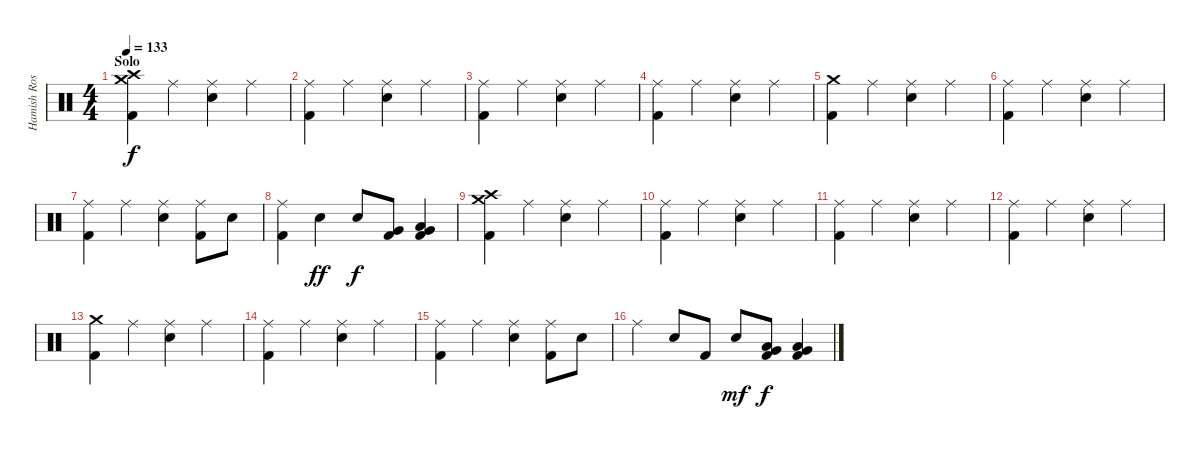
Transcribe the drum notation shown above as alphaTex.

\track ("Hamish Rosser" "Hamish Ros") {instrument percussion}
\staff {score}
\articulation defaults
\ts (4 4)
\section ("" "Solo")
\tempo 133
\clef neutral
\ks c
("Crash medium (hit)" "Crash high (hit)" "Kick (hit) 2").4{dy f} "Ride (middle)".4 ("Ride (middle)" "Electric Snare (hit)").4 "Ride (middle)".4 |
("Ride (middle)" "Kick (hit) 2").4 "Ride (middle)".4 ("Ride (middle)" "Electric Snare (hit)").4 "Ride (middle)".4 |
("Ride (middle)" "Kick (hit) 2").4 "Ride (middle)".4 ("Ride (middle)" "Electric Snare (hit)").4 "Ride (middle)".4 |
("Ride (middle)" "Kick (hit) 2").4 "Ride (middle)".4 ("Ride (middle)" "Electric Snare (hit)").4 "Ride (middle)".4 |
("Crash medium (hit)" "Kick (hit) 2").4 "Ride (middle)".4 ("Ride (middle)" "Electric Snare (hit)").4 "Ride (middle)".4 |
("Ride (middle)" "Kick (hit) 2").4 "Ride (middle)".4 ("Ride (middle)" "Electric Snare (hit)").4 "Ride (middle)".4 |
("Ride (middle)" "Kick (hit) 2").4 "Ride (middle)".4 ("Ride (middle)" "Electric Snare (hit)").4 ("Ride (middle)" "Kick (hit) 2").8 "Electric Snare (hit)".8 |
("Ride (middle)" "Kick (hit) 2").4 "Electric Snare (hit)".4{dy ff} "Electric Snare (hit)".8{dy f} ("Very Low Tom (hit)" "Kick (hit) 2").8 ("Low Tom (hit)" "Very Low Tom (hit)" "Kick (hit) 2").4 |
("Crash medium (hit)" "Crash high (hit)" "Kick (hit) 2").4 "Ride (middle)".4 ("Ride (middle)" "Electric Snare (hit)").4 "Ride (middle)".4 |
("Ride (middle)" "Kick (hit) 2").4 "Ride (middle)".4 ("Ride (middle)" "Electric Snare (hit)").4 "Ride (middle)".4 |
("Ride (middle)" "Kick (hit) 2").4 "Ride (middle)".4 ("Ride (middle)" "Electric Snare (hit)").4 "Ride (middle)".4 |
("Ride (middle)" "Kick (hit) 2").4 "Ride (middle)".4 ("Ride (middle)" "Electric Snare (hit)").4 "Ride (middle)".4 |
("Crash medium (hit)" "Kick (hit) 2").4 "Ride (middle)".4 ("Ride (middle)" "Electric Snare (hit)").4 "Ride (middle)".4 |
("Ride (middle)" "Kick (hit) 2").4 "Ride (middle)".4 ("Ride (middle)" "Electric Snare (hit)").4 "Ride (middle)".4 |
("Ride (middle)" "Kick (hit) 2").4 "Ride (middle)".4 ("Ride (middle)" "Electric Snare (hit)").4 ("Ride (middle)" "Kick (hit) 2").8 "Electric Snare (hit)".8 |
"Ride (middle)".4 "Electric Snare (hit)".8 "Kick (hit) 2".8 "Electric Snare (hit)".8{dy mf} ("Low Tom (hit)" "Very Low Tom (hit)" "Kick (hit) 2").8{dy f} ("Low Tom (hit)" "Very Low Tom (hit)" "Kick (hit) 2").4
